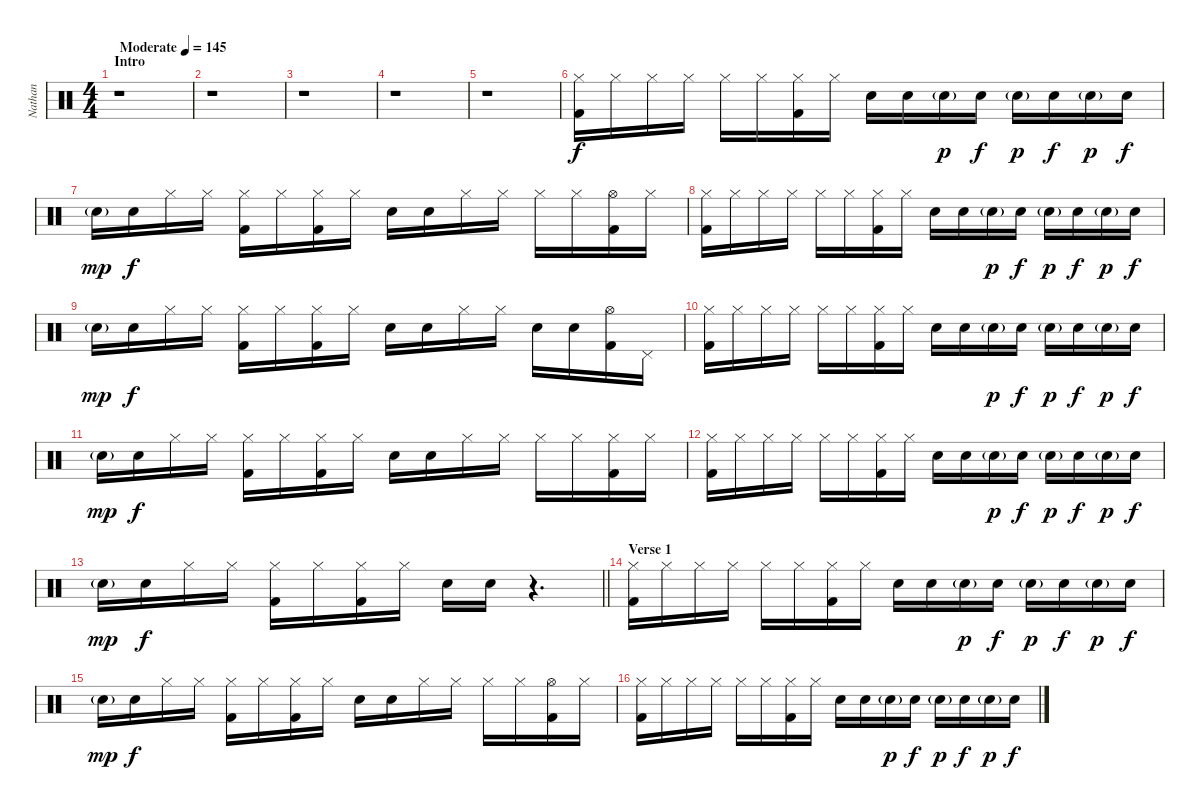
\track ("Nathan" "Nathan") {instrument percussion}
\staff {score}
\articulation defaults
\ts (4 4)
\section ("" "Intro")
\tempo (145 "Moderate")
\clef neutral
\ks c
r.1{dy f} |
r.1 |
r.1 |
r.1 |
r.1 |
("Hi-Hat (closed)" "Kick (hit) 2").16 "Hi-Hat (closed)".16 "Hi-Hat (closed)".16 "Hi-Hat (closed)".16 "Hi-Hat (closed)".16 "Hi-Hat (closed)".16 ("Hi-Hat (closed)" "Kick (hit) 2").16 "Hi-Hat (closed)".16 "Electric Snare (hit)".16 "Electric Snare (hit)".16 "Electric Snare (hit)"{g}.16{dy p} "Electric Snare (hit)".16{dy f} "Electric Snare (hit)"{g}.16{dy p} "Electric Snare (hit)".16{dy f} "Electric Snare (hit)"{g}.16{dy p} "Electric Snare (hit)".16{dy f} |
"Electric Snare (hit)"{g}.16{dy mp} "Electric Snare (hit)".16{dy f} "Hi-Hat (closed)".16 "Hi-Hat (closed)".16 ("Hi-Hat (closed)" "Kick (hit) 2").16 "Hi-Hat (closed)".16 ("Hi-Hat (closed)" "Kick (hit) 2").16 "Hi-Hat (closed)".16 "Electric Snare (hit)".16 "Electric Snare (hit)".16 "Hi-Hat (closed)".16 "Hi-Hat (closed)".16 "Hi-Hat (closed)".16 "Hi-Hat (closed)".16 ("Hi-Hat (open)" "Kick (hit) 2").16 "Hi-Hat (closed)".16 |
("Hi-Hat (closed)" "Kick (hit) 2").16 "Hi-Hat (closed)".16 "Hi-Hat (closed)".16 "Hi-Hat (closed)".16 "Hi-Hat (closed)".16 "Hi-Hat (closed)".16 ("Hi-Hat (closed)" "Kick (hit) 2").16 "Hi-Hat (closed)".16 "Electric Snare (hit)".16 "Electric Snare (hit)".16 "Electric Snare (hit)"{g}.16{dy p} "Electric Snare (hit)".16{dy f} "Electric Snare (hit)"{g}.16{dy p} "Electric Snare (hit)".16{dy f} "Electric Snare (hit)"{g}.16{dy p} "Electric Snare (hit)".16{dy f} |
"Electric Snare (hit)"{g}.16{dy mp} "Electric Snare (hit)".16{dy f} "Hi-Hat (closed)".16 "Hi-Hat (closed)".16 ("Hi-Hat (closed)" "Kick (hit) 2").16 "Hi-Hat (closed)".16 ("Hi-Hat (closed)" "Kick (hit) 2").16 "Hi-Hat (closed)".16 "Electric Snare (hit)".16 "Electric Snare (hit)".16 "Hi-Hat (closed)".16 "Hi-Hat (closed)".16 "Electric Snare (hit)".16 "Electric Snare (hit)".16 ("Hi-Hat (open)" "Kick (hit) 2").16 "Pedal Hi-Hat (hit)".16 |
("Hi-Hat (closed)" "Kick (hit) 2").16 "Hi-Hat (closed)".16 "Hi-Hat (closed)".16 "Hi-Hat (closed)".16 "Hi-Hat (closed)".16 "Hi-Hat (closed)".16 ("Hi-Hat (closed)" "Kick (hit) 2").16 "Hi-Hat (closed)".16 "Electric Snare (hit)".16 "Electric Snare (hit)".16 "Electric Snare (hit)"{g}.16{dy p} "Electric Snare (hit)".16{dy f} "Electric Snare (hit)"{g}.16{dy p} "Electric Snare (hit)".16{dy f} "Electric Snare (hit)"{g}.16{dy p} "Electric Snare (hit)".16{dy f} |
"Electric Snare (hit)"{g}.16{dy mp} "Electric Snare (hit)".16{dy f} "Hi-Hat (closed)".16 "Hi-Hat (closed)".16 ("Hi-Hat (closed)" "Kick (hit) 2").16 "Hi-Hat (closed)".16 ("Hi-Hat (closed)" "Kick (hit) 2").16 "Hi-Hat (closed)".16 "Electric Snare (hit)".16 "Electric Snare (hit)".16 "Hi-Hat (closed)".16 "Hi-Hat (closed)".16 "Hi-Hat (closed)".16 "Hi-Hat (closed)".16 ("Hi-Hat (closed)" "Kick (hit) 2").16 "Hi-Hat (closed)".16 |
("Hi-Hat (closed)" "Kick (hit) 2").16 "Hi-Hat (closed)".16 "Hi-Hat (closed)".16 "Hi-Hat (closed)".16 "Hi-Hat (closed)".16 "Hi-Hat (closed)".16 ("Hi-Hat (closed)" "Kick (hit) 2").16 "Hi-Hat (closed)".16 "Electric Snare (hit)".16 "Electric Snare (hit)".16 "Electric Snare (hit)"{g}.16{dy p} "Electric Snare (hit)".16{dy f} "Electric Snare (hit)"{g}.16{dy p} "Electric Snare (hit)".16{dy f} "Electric Snare (hit)"{g}.16{dy p} "Electric Snare (hit)".16{dy f} |
\barLineRight lightlight "Electric Snare (hit)"{g}.16{dy mp} "Electric Snare (hit)".16{dy f} "Hi-Hat (closed)".16 "Hi-Hat (closed)".16
("Hi-Hat (closed)" "Kick (hit) 2").16 "Hi-Hat (closed)".16 ("Hi-Hat (closed)" "Kick (hit) 2").16 "Hi-Hat (closed)".16 "Electric Snare (hit)".16 "Electric Snare (hit)".16 r.4{d} |
\section ("" "Verse 1")
("Hi-Hat (closed)" "Kick (hit) 2").16 "Hi-Hat (closed)".16 "Hi-Hat (closed)".16 "Hi-Hat (closed)".16 "Hi-Hat (closed)".16 "Hi-Hat (closed)".16 ("Hi-Hat (closed)" "Kick (hit) 2").16 "Hi-Hat (closed)".16 "Electric Snare (hit)".16 "Electric Snare (hit)".16 "Electric Snare (hit)"{g}.16{dy p} "Electric Snare (hit)".16{dy f} "Electric Snare (hit)"{g}.16{dy p} "Electric Snare (hit)".16{dy f} "Electric Snare (hit)"{g}.16{dy p} "Electric Snare (hit)".16{dy f} |
"Electric Snare (hit)"{g}.16{dy mp} "Electric Snare (hit)".16{dy f} "Hi-Hat (closed)".16 "Hi-Hat (closed)".16 ("Hi-Hat (closed)" "Kick (hit) 2").16 "Hi-Hat (closed)".16 ("Hi-Hat (closed)" "Kick (hit) 2").16 "Hi-Hat (closed)".16 "Electric Snare (hit)".16 "Electric Snare (hit)".16 "Hi-Hat (closed)".16 "Hi-Hat (closed)".16 "Hi-Hat (closed)".16 "Hi-Hat (closed)".16 ("Hi-Hat (open)" "Kick (hit) 2").16 "Hi-Hat (closed)".16 |
("Hi-Hat (closed)" "Kick (hit) 2").16 "Hi-Hat (closed)".16 "Hi-Hat (closed)".16 "Hi-Hat (closed)".16 "Hi-Hat (closed)".16 "Hi-Hat (closed)".16 ("Hi-Hat (closed)" "Kick (hit) 2").16 "Hi-Hat (closed)".16 "Electric Snare (hit)".16 "Electric Snare (hit)".16 "Electric Snare (hit)"{g}.16{dy p} "Electric Snare (hit)".16{dy f} "Electric Snare (hit)"{g}.16{dy p} "Electric Snare (hit)".16{dy f} "Electric Snare (hit)"{g}.16{dy p} "Electric Snare (hit)".16{dy f}
